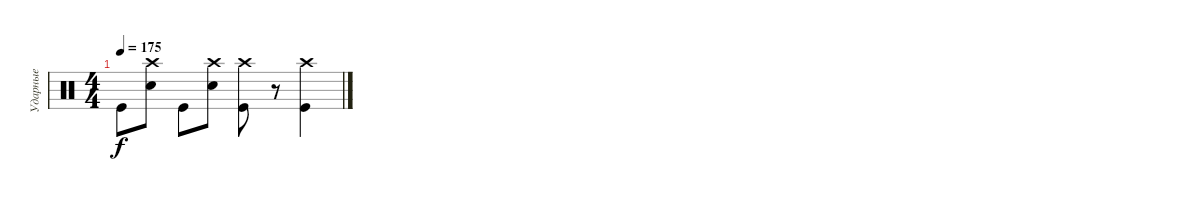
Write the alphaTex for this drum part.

\track ("Ударные" "Ударные") {instrument percussion}
\staff {score}
\articulation defaults
\ts (4 4)
\tempo 175
\clef neutral
\ks c "Kick (hit)".8{dy f}
("Crash high (hit)" "Electric Snare (hit)").8 "Kick (hit)".8 ("Crash high (hit)" "Electric Snare (hit)").8 ("Crash high (hit)" "Kick (hit)").8 r.8 ("Crash high (hit)" "Kick (hit)").4
